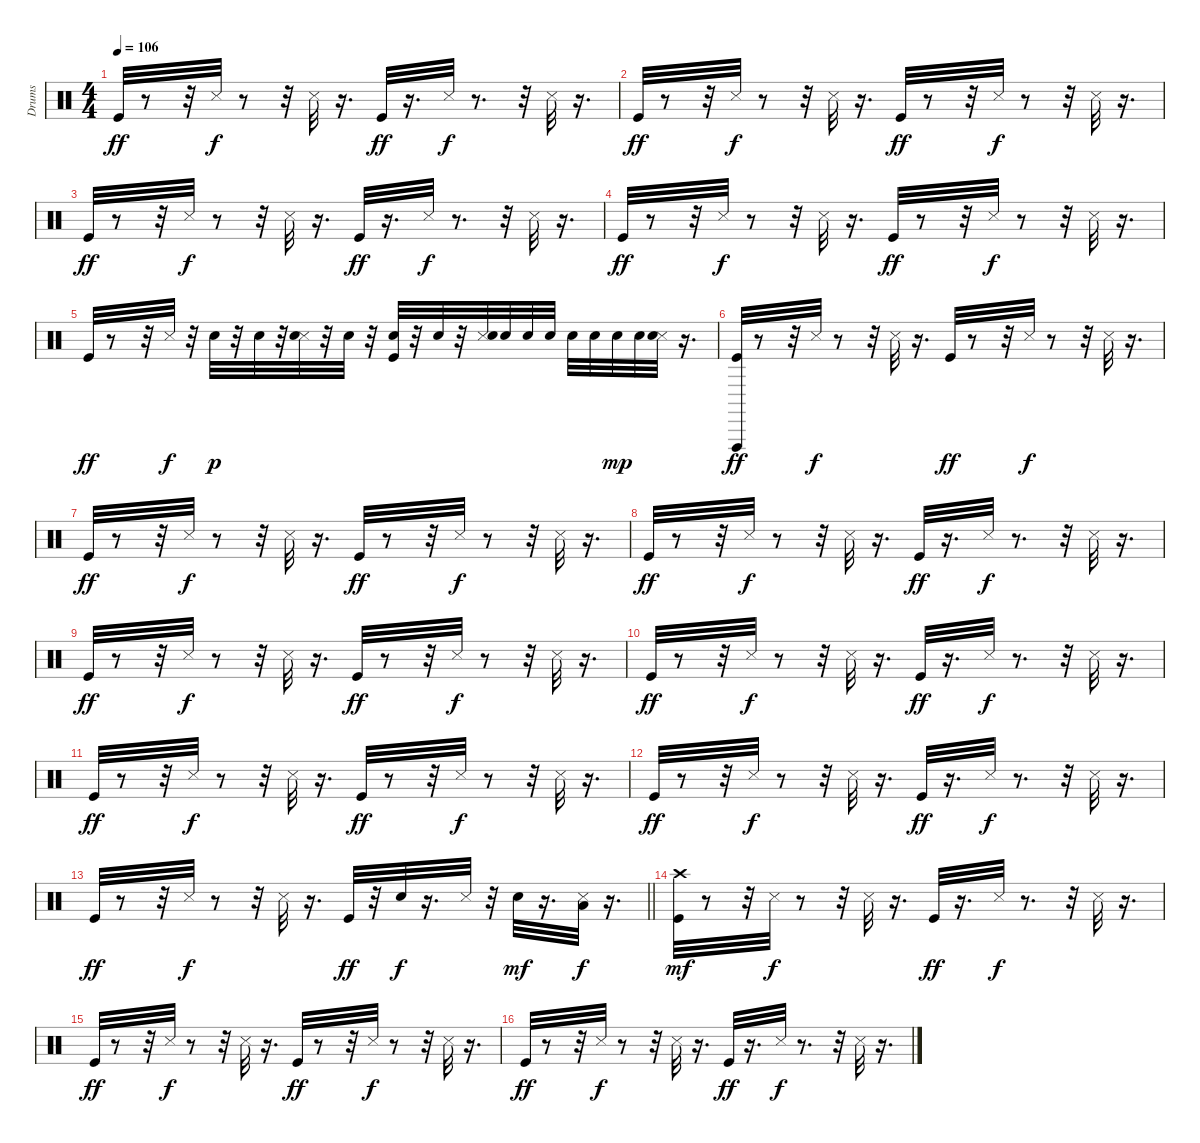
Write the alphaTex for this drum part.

\track ("Drums" "Drums") {instrument percussion}
\staff {score}
\articulation defaults
\ts (4 4)
\tempo 106
\clef neutral
\ks c "Kick (hit)".32{dy ff}
r.8 r.32 "Snare (side stick) 3".32{dy f} r.8 r.32 "Snare (side stick) 3".32 r.16{d} "Kick (hit)".32{dy ff} r.16{d} "Snare (side stick) 3".32{dy f} r.8{d} r.32 "Snare (side stick) 3".32 r.16{d} |
"Kick (hit)".32{dy ff} r.8 r.32 "Snare (side stick) 3".32{dy f} r.8 r.32 "Snare (side stick) 3".32 r.16{d} "Kick (hit)".32{dy ff} r.8 r.32 "Snare (side stick) 3".32{dy f} r.8 r.32 "Snare (side stick) 3".32 r.16{d} |
"Kick (hit)".32{dy ff} r.8 r.32 "Snare (side stick) 3".32{dy f} r.8 r.32 "Snare (side stick) 3".32 r.16{d} "Kick (hit)".32{dy ff} r.16{d} "Snare (side stick) 3".32{dy f} r.8{d} r.32 "Snare (side stick) 3".32 r.16{d} |
"Kick (hit)".32{dy ff} r.8 r.32 "Snare (side stick) 3".32{dy f} r.8 r.32 "Snare (side stick) 3".32 r.16{d} "Kick (hit)".32{dy ff} r.8 r.32 "Snare (side stick) 3".32{dy f} r.8 r.32 "Snare (side stick) 3".32 r.16{d} |
"Kick (hit)".32{dy ff} r.8 r.32 "Snare (side stick) 3".32{dy f} r.32 "Snare (hit) 2".32{dy p} r.32 "Snare (hit) 2".32 r.32 ("Snare (side stick) 3" "Snare (hit) 2").32 r.32 "Snare (hit) 2".32 r.32 ("Kick (hit)" "Snare (hit) 2").32 r.32 "Snare (hit) 2".32 r.32 ("Snare (side stick) 3" "Snare (hit) 2").32 "Snare (hit) 2".32 "Snare (hit) 2".32 "Snare (hit) 2".32 "Snare (hit) 2".32 "Snare (hit) 2".32 "Snare (hit) 2".32{dy mp} "Snare (hit) 2".32 ("Snare (side stick) 3" "Snare (hit) 2").32 r.16{d} |
("Kick (hit)" "Vibraslap (hit)").32{dy ff} r.8 r.32 "Snare (side stick) 3".32{dy f} r.8 r.32 "Snare (side stick) 3".32 r.16{d} "Kick (hit)".32{dy ff} r.8 r.32 "Snare (side stick) 3".32{dy f} r.8 r.32 "Snare (side stick) 3".32 r.16{d} |
"Kick (hit)".32{dy ff} r.8 r.32 "Snare (side stick) 3".32{dy f} r.8 r.32 "Snare (side stick) 3".32 r.16{d} "Kick (hit)".32{dy ff} r.8 r.32 "Snare (side stick) 3".32{dy f} r.8 r.32 "Snare (side stick) 3".32 r.16{d} |
"Kick (hit)".32{dy ff} r.8 r.32 "Snare (side stick) 3".32{dy f} r.8 r.32 "Snare (side stick) 3".32 r.16{d} "Kick (hit)".32{dy ff} r.16{d} "Snare (side stick) 3".32{dy f} r.8{d} r.32 "Snare (side stick) 3".32 r.16{d} |
"Kick (hit)".32{dy ff} r.8 r.32 "Snare (side stick) 3".32{dy f} r.8 r.32 "Snare (side stick) 3".32 r.16{d} "Kick (hit)".32{dy ff} r.8 r.32 "Snare (side stick) 3".32{dy f} r.8 r.32 "Snare (side stick) 3".32 r.16{d} |
"Kick (hit)".32{dy ff} r.8 r.32 "Snare (side stick) 3".32{dy f} r.8 r.32 "Snare (side stick) 3".32 r.16{d} "Kick (hit)".32{dy ff} r.16{d} "Snare (side stick) 3".32{dy f} r.8{d} r.32 "Snare (side stick) 3".32 r.16{d} |
"Kick (hit)".32{dy ff} r.8 r.32 "Snare (side stick) 3".32{dy f} r.8 r.32 "Snare (side stick) 3".32 r.16{d} "Kick (hit)".32{dy ff} r.8 r.32 "Snare (side stick) 3".32{dy f} r.8 r.32 "Snare (side stick) 3".32 r.16{d} |
"Kick (hit)".32{dy ff} r.8 r.32 "Snare (side stick) 3".32{dy f} r.8 r.32 "Snare (side stick) 3".32 r.16{d} "Kick (hit)".32{dy ff} r.16{d} "Snare (side stick) 3".32{dy f} r.8{d} r.32 "Snare (side stick) 3".32 r.16{d} |
\barLineRight lightlight "Kick (hit)".32{dy ff}
r.8 r.32 "Snare (side stick) 3".32{dy f} r.8 r.32 "Snare (side stick) 3".32 r.16{d} "Kick (hit)".32{dy ff} r.32 "Snare (hit) 2".32{dy f} r.16{d} "Snare (side stick) 3".32 r.32 "Snare (hit) 2".32{dy mf} r.16{d} ("Snare (side stick) 3" "Low Floor Tom (hit)").32{dy f} r.16{d} |
("Kick (hit)" "Crash high (hit)").32{dy mf} r.8 r.32 "Snare (side stick) 3".32{dy f} r.8 r.32 "Snare (side stick) 3".32 r.16{d} "Kick (hit)".32{dy ff} r.16{d} "Snare (side stick) 3".32{dy f} r.8{d} r.32 "Snare (side stick) 3".32 r.16{d} |
"Kick (hit)".32{dy ff} r.8 r.32 "Snare (side stick) 3".32{dy f} r.8 r.32 "Snare (side stick) 3".32 r.16{d} "Kick (hit)".32{dy ff} r.8 r.32 "Snare (side stick) 3".32{dy f} r.8 r.32 "Snare (side stick) 3".32 r.16{d} |
"Kick (hit)".32{dy ff} r.8 r.32 "Snare (side stick) 3".32{dy f} r.8 r.32 "Snare (side stick) 3".32 r.16{d} "Kick (hit)".32{dy ff} r.16{d} "Snare (side stick) 3".32{dy f} r.8{d} r.32 "Snare (side stick) 3".32 r.16{d}
